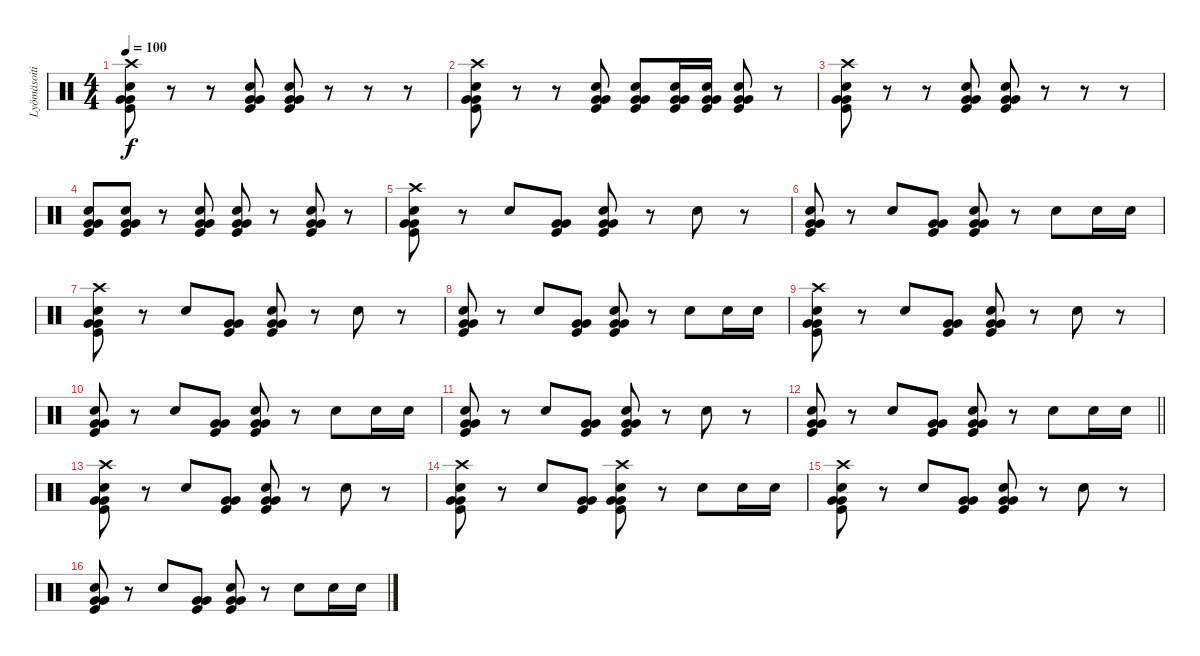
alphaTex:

\track ("Lyömäsoitin" "Lyömäsoiti") {instrument percussion}
\staff {score}
\articulation defaults
\ts (4 4)
\tempo 100
\clef neutral
\ks c
("Crash high (hit)" "Snare (hit) 2" "Very Low Tom (hit)" "Very Low Tom (hit)" "Kick (hit)").8{dy f} r.8 r.8 ("Snare (hit) 2" "Very Low Tom (hit)" "Very Low Tom (hit)" "Kick (hit)").8 ("Snare (hit) 2" "Very Low Tom (hit)" "Very Low Tom (hit)" "Kick (hit)").8 r.8 r.8 r.8 |
("Crash high (hit)" "Snare (hit) 2" "Very Low Tom (hit)" "Very Low Tom (hit)" "Kick (hit)").8 r.8 r.8 ("Snare (hit) 2" "Very Low Tom (hit)" "Very Low Tom (hit)" "Kick (hit)").8 ("Snare (hit) 2" "Very Low Tom (hit)" "Very Low Tom (hit)" "Kick (hit)").8 ("Snare (hit) 2" "Very Low Tom (hit)" "Very Low Tom (hit)" "Kick (hit)").16 ("Snare (hit) 2" "Very Low Tom (hit)" "Very Low Tom (hit)" "Kick (hit)").16 ("Snare (hit) 2" "Very Low Tom (hit)" "Very Low Tom (hit)" "Kick (hit)").8 r.8 |
("Crash high (hit)" "Snare (hit) 2" "Very Low Tom (hit)" "Very Low Tom (hit)" "Kick (hit)").8 r.8 r.8 ("Snare (hit) 2" "Very Low Tom (hit)" "Very Low Tom (hit)" "Kick (hit)").8 ("Snare (hit) 2" "Very Low Tom (hit)" "Very Low Tom (hit)" "Kick (hit)").8 r.8 r.8 r.8 |
("Snare (hit) 2" "Very Low Tom (hit)" "Very Low Tom (hit)" "Kick (hit)").8 ("Snare (hit) 2" "Very Low Tom (hit)" "Very Low Tom (hit)" "Kick (hit)").8 r.8 ("Snare (hit) 2" "Very Low Tom (hit)" "Very Low Tom (hit)" "Kick (hit)").8 ("Snare (hit) 2" "Very Low Tom (hit)" "Very Low Tom (hit)" "Kick (hit)").8 r.8 ("Snare (hit) 2" "Very Low Tom (hit)" "Very Low Tom (hit)" "Kick (hit)").8 r.8 |
("Crash high (hit)" "Snare (hit) 2" "Very Low Tom (hit)" "Very Low Tom (hit)" "Kick (hit)").8 r.8 "Snare (hit) 2".8 ("Very Low Tom (hit)" "Very Low Tom (hit)" "Kick (hit)").8 ("Snare (hit) 2" "Very Low Tom (hit)" "Very Low Tom (hit)" "Kick (hit)").8 r.8 "Snare (hit) 2".8 r.8 |
("Snare (hit) 2" "Very Low Tom (hit)" "Very Low Tom (hit)" "Kick (hit)").8 r.8 "Snare (hit) 2".8 ("Very Low Tom (hit)" "Very Low Tom (hit)" "Kick (hit)").8 ("Snare (hit) 2" "Very Low Tom (hit)" "Very Low Tom (hit)" "Kick (hit)").8 r.8 "Snare (hit) 2".8 "Snare (hit) 2".16 "Snare (hit) 2".16 |
("Crash high (hit)" "Snare (hit) 2" "Very Low Tom (hit)" "Very Low Tom (hit)" "Kick (hit)").8 r.8 "Snare (hit) 2".8 ("Very Low Tom (hit)" "Very Low Tom (hit)" "Kick (hit)").8 ("Snare (hit) 2" "Very Low Tom (hit)" "Very Low Tom (hit)" "Kick (hit)").8 r.8 "Snare (hit) 2".8 r.8 |
("Snare (hit) 2" "Very Low Tom (hit)" "Very Low Tom (hit)" "Kick (hit)").8 r.8 "Snare (hit) 2".8 ("Very Low Tom (hit)" "Very Low Tom (hit)" "Kick (hit)").8 ("Snare (hit) 2" "Very Low Tom (hit)" "Very Low Tom (hit)" "Kick (hit)").8 r.8 "Snare (hit) 2".8 "Snare (hit) 2".16 "Snare (hit) 2".16 |
("Crash high (hit)" "Snare (hit) 2" "Very Low Tom (hit)" "Very Low Tom (hit)" "Kick (hit)").8 r.8 "Snare (hit) 2".8 ("Very Low Tom (hit)" "Very Low Tom (hit)" "Kick (hit)").8 ("Snare (hit) 2" "Very Low Tom (hit)" "Very Low Tom (hit)" "Kick (hit)").8 r.8 "Snare (hit) 2".8 r.8 |
("Snare (hit) 2" "Very Low Tom (hit)" "Very Low Tom (hit)" "Kick (hit)").8 r.8 "Snare (hit) 2".8 ("Very Low Tom (hit)" "Very Low Tom (hit)" "Kick (hit)").8 ("Snare (hit) 2" "Very Low Tom (hit)" "Very Low Tom (hit)" "Kick (hit)").8 r.8 "Snare (hit) 2".8 "Snare (hit) 2".16 "Snare (hit) 2".16 |
("Snare (hit) 2" "Very Low Tom (hit)" "Very Low Tom (hit)" "Kick (hit)").8 r.8 "Snare (hit) 2".8 ("Very Low Tom (hit)" "Very Low Tom (hit)" "Kick (hit)").8 ("Snare (hit) 2" "Very Low Tom (hit)" "Very Low Tom (hit)" "Kick (hit)").8 r.8 "Snare (hit) 2".8 r.8 |
\barLineRight lightlight
("Snare (hit) 2" "Very Low Tom (hit)" "Very Low Tom (hit)" "Kick (hit)").8 r.8 "Snare (hit) 2".8 ("Very Low Tom (hit)" "Very Low Tom (hit)" "Kick (hit)").8 ("Snare (hit) 2" "Very Low Tom (hit)" "Very Low Tom (hit)" "Kick (hit)").8 r.8 "Snare (hit) 2".8 "Snare (hit) 2".16 "Snare (hit) 2".16 |
("Crash high (hit)" "Snare (hit) 2" "Very Low Tom (hit)" "Very Low Tom (hit)" "Kick (hit)").8 r.8 "Snare (hit) 2".8 ("Very Low Tom (hit)" "Very Low Tom (hit)" "Kick (hit)").8 ("Snare (hit) 2" "Very Low Tom (hit)" "Very Low Tom (hit)" "Kick (hit)").8 r.8 "Snare (hit) 2".8 r.8 |
("Crash high (hit)" "Snare (hit) 2" "Very Low Tom (hit)" "Very Low Tom (hit)" "Kick (hit)").8 r.8 "Snare (hit) 2".8 ("Very Low Tom (hit)" "Very Low Tom (hit)" "Kick (hit)").8 ("Crash high (hit)" "Snare (hit) 2" "Very Low Tom (hit)" "Very Low Tom (hit)" "Kick (hit)").8 r.8 "Snare (hit) 2".8 "Snare (hit) 2".16 "Snare (hit) 2".16 |
("Crash high (hit)" "Snare (hit) 2" "Very Low Tom (hit)" "Very Low Tom (hit)" "Kick (hit)").8 r.8 "Snare (hit) 2".8 ("Very Low Tom (hit)" "Very Low Tom (hit)" "Kick (hit)").8 ("Snare (hit) 2" "Very Low Tom (hit)" "Very Low Tom (hit)" "Kick (hit)").8 r.8 "Snare (hit) 2".8 r.8 |
("Snare (hit) 2" "Very Low Tom (hit)" "Very Low Tom (hit)" "Kick (hit)").8 r.8 "Snare (hit) 2".8 ("Very Low Tom (hit)" "Very Low Tom (hit)" "Kick (hit)").8 ("Snare (hit) 2" "Very Low Tom (hit)" "Very Low Tom (hit)" "Kick (hit)").8 r.8 "Snare (hit) 2".8 "Snare (hit) 2".16 "Snare (hit) 2".16
